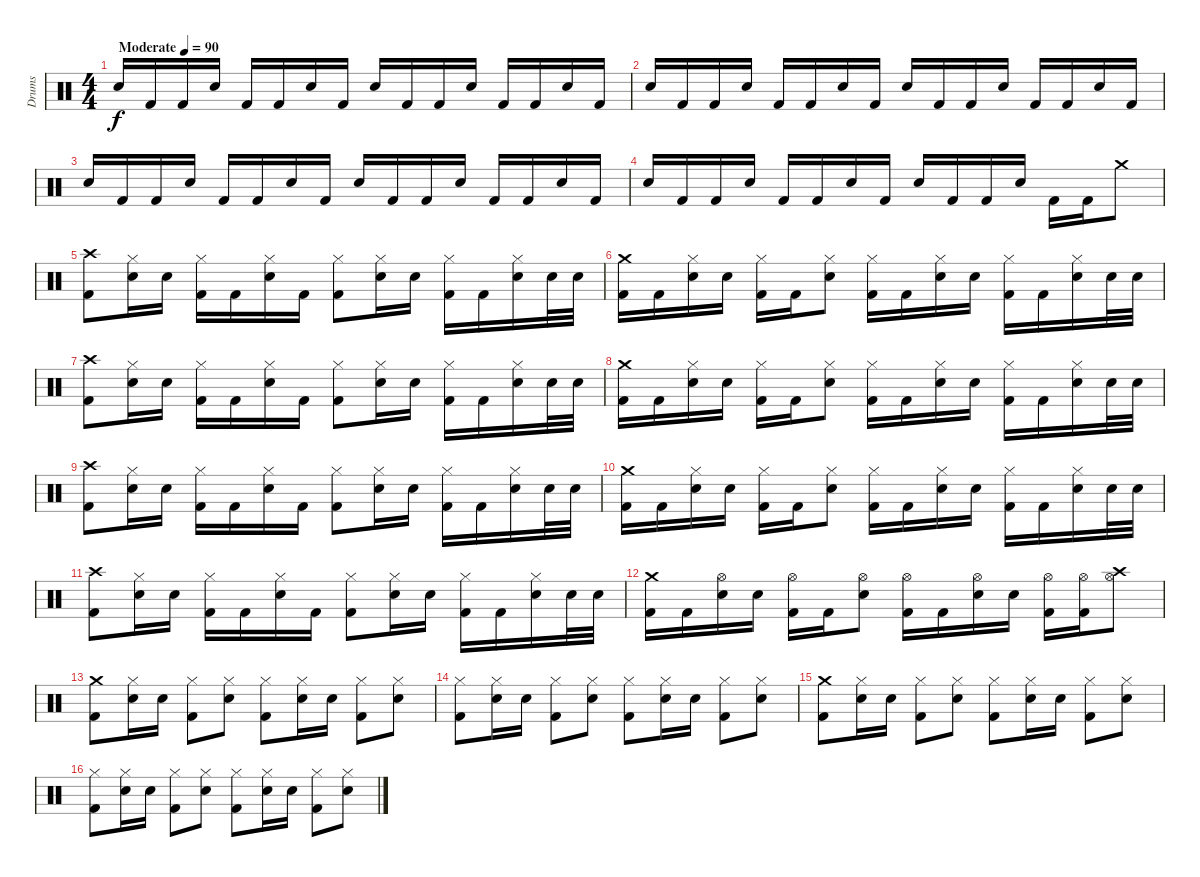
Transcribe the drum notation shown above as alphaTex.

\track ("Drums" "Drums") {instrument percussion}
\staff {score}
\articulation defaults
\ts (4 4)
\tempo (90 "Moderate")
\clef neutral
\ks c "Snare (hit) 2".16{dy f volume 6} "Kick (hit) 2".16 "Kick (hit) 2".16 "Snare (hit) 2".16 "Kick (hit) 2".16 "Kick (hit) 2".16 "Snare (hit) 2".16 "Kick (hit) 2".16 "Snare (hit) 2".16 "Kick (hit) 2".16 "Kick (hit) 2".16 "Snare (hit) 2".16 "Kick (hit) 2".16 "Kick (hit) 2".16 "Snare (hit) 2".16 "Kick (hit) 2".16
|
"Snare (hit) 2".16 "Kick (hit) 2".16 "Kick (hit) 2".16 "Snare (hit) 2".16 "Kick (hit) 2".16 "Kick (hit) 2".16 "Snare (hit) 2".16 "Kick (hit) 2".16 "Snare (hit) 2".16 "Kick (hit) 2".16 "Kick (hit) 2".16 "Snare (hit) 2".16 "Kick (hit) 2".16 "Kick (hit) 2".16 "Snare (hit) 2".16 "Kick (hit) 2".16 |
"Snare (hit) 2".16{volume 13} "Kick (hit) 2".16 "Kick (hit) 2".16 "Snare (hit) 2".16 "Kick (hit) 2".16 "Kick (hit) 2".16 "Snare (hit) 2".16 "Kick (hit) 2".16 "Snare (hit) 2".16 "Kick (hit) 2".16 "Kick (hit) 2".16 "Snare (hit) 2".16 "Kick (hit) 2".16 "Kick (hit) 2".16 "Snare (hit) 2".16 "Kick (hit) 2".16 |
"Snare (hit) 2".16 "Kick (hit) 2".16 "Kick (hit) 2".16 "Snare (hit) 2".16 "Kick (hit) 2".16 "Kick (hit) 2".16 "Snare (hit) 2".16 "Kick (hit) 2".16 "Snare (hit) 2".16 "Kick (hit) 2".16 "Kick (hit) 2".16 "Snare (hit) 2".16 "Kick (hit) 2".16 "Kick (hit) 2".16 "Crash medium (hit)".8 |
("Crash high (hit)" "Kick (hit) 2").8 ("Snare (hit) 2" "Hi-Hat (closed)").16 "Snare (hit) 2".16 ("Kick (hit) 2" "Hi-Hat (closed)").16 "Kick (hit) 2".16 ("Snare (hit) 2" "Hi-Hat (closed)").16 "Kick (hit) 2".16 ("Kick (hit) 2" "Hi-Hat (closed)").8 ("Snare (hit) 2" "Hi-Hat (closed)").16 "Snare (hit) 2".16 ("Kick (hit) 2" "Hi-Hat (closed)").16 "Kick (hit) 2".16 ("Snare (hit) 2" "Hi-Hat (closed)").16 "Snare (hit) 2".32 "Snare (hit) 2".32 |
("Kick (hit) 2" "Crash medium (hit)").16 "Kick (hit) 2".16 ("Snare (hit) 2" "Hi-Hat (closed)").16 "Snare (hit) 2".16 ("Kick (hit) 2" "Hi-Hat (closed)").16 "Kick (hit) 2".16 ("Snare (hit) 2" "Hi-Hat (closed)").8 ("Kick (hit) 2" "Hi-Hat (closed)").16 "Kick (hit) 2".16 ("Snare (hit) 2" "Hi-Hat (closed)").16 "Snare (hit) 2".16 ("Kick (hit) 2" "Hi-Hat (closed)").16 "Kick (hit) 2".16 ("Snare (hit) 2" "Hi-Hat (closed)").16 "Snare (hit) 2".32 "Snare (hit) 2".32 |
("Crash high (hit)" "Kick (hit) 2").8 ("Snare (hit) 2" "Hi-Hat (closed)").16 "Snare (hit) 2".16 ("Kick (hit) 2" "Hi-Hat (closed)").16 "Kick (hit) 2".16 ("Snare (hit) 2" "Hi-Hat (closed)").16 "Kick (hit) 2".16 ("Kick (hit) 2" "Hi-Hat (closed)").8 ("Snare (hit) 2" "Hi-Hat (closed)").16 "Snare (hit) 2".16 ("Kick (hit) 2" "Hi-Hat (closed)").16 "Kick (hit) 2".16 ("Snare (hit) 2" "Hi-Hat (closed)").16 "Snare (hit) 2".32 "Snare (hit) 2".32 |
("Kick (hit) 2" "Crash medium (hit)").16 "Kick (hit) 2".16 ("Snare (hit) 2" "Hi-Hat (closed)").16 "Snare (hit) 2".16 ("Kick (hit) 2" "Hi-Hat (closed)").16 "Kick (hit) 2".16 ("Snare (hit) 2" "Hi-Hat (closed)").8 ("Kick (hit) 2" "Hi-Hat (closed)").16 "Kick (hit) 2".16 ("Snare (hit) 2" "Hi-Hat (closed)").16 "Snare (hit) 2".16 ("Kick (hit) 2" "Hi-Hat (closed)").16 "Kick (hit) 2".16 ("Snare (hit) 2" "Hi-Hat (closed)").16 "Snare (hit) 2".32 "Snare (hit) 2".32 |
("Crash high (hit)" "Kick (hit) 2").8 ("Snare (hit) 2" "Hi-Hat (closed)").16 "Snare (hit) 2".16 ("Kick (hit) 2" "Hi-Hat (closed)").16 "Kick (hit) 2".16 ("Snare (hit) 2" "Hi-Hat (closed)").16 "Kick (hit) 2".16 ("Kick (hit) 2" "Hi-Hat (closed)").8 ("Snare (hit) 2" "Hi-Hat (closed)").16 "Snare (hit) 2".16 ("Kick (hit) 2" "Hi-Hat (closed)").16 "Kick (hit) 2".16 ("Snare (hit) 2" "Hi-Hat (closed)").16 "Snare (hit) 2".32 "Snare (hit) 2".32 |
("Kick (hit) 2" "Crash medium (hit)").16 "Kick (hit) 2".16 ("Snare (hit) 2" "Hi-Hat (closed)").16 "Snare (hit) 2".16 ("Kick (hit) 2" "Hi-Hat (closed)").16 "Kick (hit) 2".16 ("Snare (hit) 2" "Hi-Hat (closed)").8 ("Kick (hit) 2" "Hi-Hat (closed)").16 "Kick (hit) 2".16 ("Snare (hit) 2" "Hi-Hat (closed)").16 "Snare (hit) 2".16 ("Kick (hit) 2" "Hi-Hat (closed)").16 "Kick (hit) 2".16 ("Snare (hit) 2" "Hi-Hat (closed)").16 "Snare (hit) 2".32 "Snare (hit) 2".32 |
("Crash high (hit)" "Kick (hit) 2").8 ("Snare (hit) 2" "Hi-Hat (closed)").16 "Snare (hit) 2".16 ("Kick (hit) 2" "Hi-Hat (closed)").16 "Kick (hit) 2".16 ("Snare (hit) 2" "Hi-Hat (closed)").16 "Kick (hit) 2".16 ("Kick (hit) 2" "Hi-Hat (closed)").8 ("Snare (hit) 2" "Hi-Hat (closed)").16 "Snare (hit) 2".16 ("Kick (hit) 2" "Hi-Hat (closed)").16 "Kick (hit) 2".16 ("Snare (hit) 2" "Hi-Hat (closed)").16 "Snare (hit) 2".32 "Snare (hit) 2".32 |
("Kick (hit) 2" "Crash medium (hit)").16 "Kick (hit) 2".16 ("Snare (hit) 2" "Hi-Hat (open)").16 "Snare (hit) 2".16 ("Kick (hit) 2" "Hi-Hat (open)").16 "Kick (hit) 2".16 ("Snare (hit) 2" "Hi-Hat (open)").8 ("Kick (hit) 2" "Hi-Hat (open)").16 "Kick (hit) 2".16 ("Snare (hit) 2" "Hi-Hat (open)").16 "Snare (hit) 2".16 ("Kick (hit) 2" "Hi-Hat (open)").16 ("Kick (hit) 2" "Hi-Hat (open)").16 ("Crash high (hit)" "Hi-Hat (open)").8 |
("Crash medium (hit)" "Kick (hit) 2").8 ("Snare (hit) 2" "Hi-Hat (closed)").16 "Snare (hit) 2".16 ("Kick (hit) 2" "Hi-Hat (closed)").8 ("Snare (hit) 2" "Hi-Hat (closed)").8 ("Hi-Hat (closed)" "Kick (hit) 2").8 ("Snare (hit) 2" "Hi-Hat (closed)").16 "Snare (hit) 2".16 ("Kick (hit) 2" "Hi-Hat (closed)").8 ("Snare (hit) 2" "Hi-Hat (closed)").8 |
("Hi-Hat (closed)" "Kick (hit) 2").8 ("Snare (hit) 2" "Hi-Hat (closed)").16 "Snare (hit) 2".16 ("Kick (hit) 2" "Hi-Hat (closed)").8 ("Snare (hit) 2" "Hi-Hat (closed)").8 ("Hi-Hat (closed)" "Kick (hit) 2").8 ("Snare (hit) 2" "Hi-Hat (closed)").16 "Snare (hit) 2".16 ("Kick (hit) 2" "Hi-Hat (closed)").8 ("Snare (hit) 2" "Hi-Hat (closed)").8 |
("Crash medium (hit)" "Kick (hit) 2").8 ("Snare (hit) 2" "Hi-Hat (closed)").16 "Snare (hit) 2".16 ("Kick (hit) 2" "Hi-Hat (closed)").8 ("Snare (hit) 2" "Hi-Hat (closed)").8 ("Hi-Hat (closed)" "Kick (hit) 2").8 ("Snare (hit) 2" "Hi-Hat (closed)").16 "Snare (hit) 2".16 ("Kick (hit) 2" "Hi-Hat (closed)").8 ("Snare (hit) 2" "Hi-Hat (closed)").8 |
("Hi-Hat (closed)" "Kick (hit) 2").8 ("Snare (hit) 2" "Hi-Hat (closed)").16 "Snare (hit) 2".16 ("Kick (hit) 2" "Hi-Hat (closed)").8 ("Snare (hit) 2" "Hi-Hat (closed)").8 ("Hi-Hat (closed)" "Kick (hit) 2").8 ("Snare (hit) 2" "Hi-Hat (closed)").16 "Snare (hit) 2".16 ("Kick (hit) 2" "Hi-Hat (closed)").8 ("Snare (hit) 2" "Hi-Hat (closed)").8
